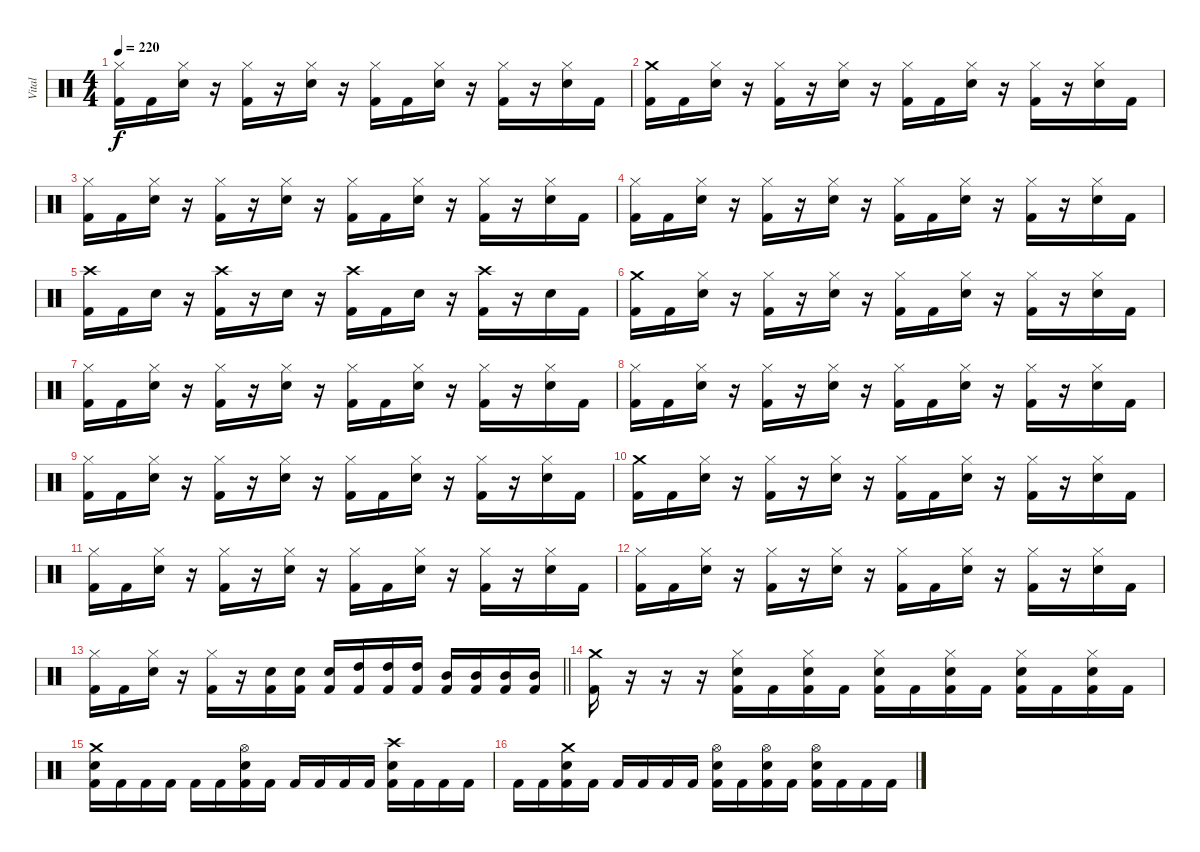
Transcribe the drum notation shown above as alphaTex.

\track ("Vital" "Vital") {instrument percussion}
\staff {score}
\articulation defaults
\ts (4 4)
\tempo 220
\clef neutral
\ks c
("Hi-Hat (closed)" "Kick (hit) 2").16{dy f} "Kick (hit) 2".16 ("Hi-Hat (closed)" "Snare (hit) 2").16 r.16 ("Hi-Hat (closed)" "Kick (hit) 2").16 r.16 ("Hi-Hat (closed)" "Snare (hit) 2").16 r.16 ("Hi-Hat (closed)" "Kick (hit) 2").16 "Kick (hit) 2".16 ("Hi-Hat (closed)" "Snare (hit) 2").16 r.16 ("Hi-Hat (closed)" "Kick (hit) 2").16 r.16 ("Hi-Hat (closed)" "Snare (hit) 2").16 "Kick (hit) 2".16 |
("Crash medium (hit)" "Kick (hit) 2").16 "Kick (hit) 2".16 ("Hi-Hat (closed)" "Snare (hit) 2").16 r.16 ("Hi-Hat (closed)" "Kick (hit) 2").16 r.16 ("Hi-Hat (closed)" "Snare (hit) 2").16 r.16 ("Hi-Hat (closed)" "Kick (hit) 2").16 "Kick (hit) 2".16 ("Hi-Hat (closed)" "Snare (hit) 2").16 r.16 ("Hi-Hat (closed)" "Kick (hit) 2").16 r.16 ("Hi-Hat (closed)" "Snare (hit) 2").16 "Kick (hit) 2".16 |
("Hi-Hat (closed)" "Kick (hit) 2").16 "Kick (hit) 2".16 ("Hi-Hat (closed)" "Snare (hit) 2").16 r.16 ("Hi-Hat (closed)" "Kick (hit) 2").16 r.16 ("Hi-Hat (closed)" "Snare (hit) 2").16 r.16 ("Hi-Hat (closed)" "Kick (hit) 2").16 "Kick (hit) 2".16 ("Hi-Hat (closed)" "Snare (hit) 2").16 r.16 ("Hi-Hat (closed)" "Kick (hit) 2").16 r.16 ("Hi-Hat (closed)" "Snare (hit) 2").16 "Kick (hit) 2".16 |
("Hi-Hat (closed)" "Kick (hit) 2").16 "Kick (hit) 2".16 ("Hi-Hat (closed)" "Snare (hit) 2").16 r.16 ("Hi-Hat (closed)" "Kick (hit) 2").16 r.16 ("Hi-Hat (closed)" "Snare (hit) 2").16 r.16 ("Hi-Hat (closed)" "Kick (hit) 2").16 "Kick (hit) 2".16 ("Hi-Hat (closed)" "Snare (hit) 2").16 r.16 ("Hi-Hat (closed)" "Kick (hit) 2").16 r.16 ("Hi-Hat (closed)" "Snare (hit) 2").16 "Kick (hit) 2".16 |
("Crash high (hit)" "Kick (hit) 2").16 "Kick (hit) 2".16 "Snare (hit) 2".16 r.16 ("Crash high (hit)" "Kick (hit) 2").16 r.16 "Snare (hit) 2".16 r.16 ("Crash high (hit)" "Kick (hit) 2").16 "Kick (hit) 2".16 "Snare (hit) 2".16 r.16 ("Crash high (hit)" "Kick (hit) 2").16 r.16 "Snare (hit) 2".16 "Kick (hit) 2".16 |
("Crash medium (hit)" "Kick (hit) 2").16 "Kick (hit) 2".16 ("Hi-Hat (closed)" "Snare (hit) 2").16 r.16 ("Hi-Hat (closed)" "Kick (hit) 2").16 r.16 ("Hi-Hat (closed)" "Snare (hit) 2").16 r.16 ("Hi-Hat (closed)" "Kick (hit) 2").16 "Kick (hit) 2".16 ("Hi-Hat (closed)" "Snare (hit) 2").16 r.16 ("Hi-Hat (closed)" "Kick (hit) 2").16 r.16 ("Hi-Hat (closed)" "Snare (hit) 2").16 "Kick (hit) 2".16 |
("Hi-Hat (closed)" "Kick (hit) 2").16 "Kick (hit) 2".16 ("Hi-Hat (closed)" "Snare (hit) 2").16 r.16 ("Hi-Hat (closed)" "Kick (hit) 2").16 r.16 ("Hi-Hat (closed)" "Snare (hit) 2").16 r.16 ("Hi-Hat (closed)" "Kick (hit) 2").16 "Kick (hit) 2".16 ("Hi-Hat (closed)" "Snare (hit) 2").16 r.16 ("Hi-Hat (closed)" "Kick (hit) 2").16 r.16 ("Hi-Hat (closed)" "Snare (hit) 2").16 "Kick (hit) 2".16 |
("Hi-Hat (closed)" "Kick (hit) 2").16 "Kick (hit) 2".16 ("Hi-Hat (closed)" "Snare (hit) 2").16 r.16 ("Hi-Hat (closed)" "Kick (hit) 2").16 r.16 ("Hi-Hat (closed)" "Snare (hit) 2").16 r.16 ("Hi-Hat (closed)" "Kick (hit) 2").16 "Kick (hit) 2".16 ("Hi-Hat (closed)" "Snare (hit) 2").16 r.16 ("Hi-Hat (closed)" "Kick (hit) 2").16 r.16 ("Hi-Hat (closed)" "Snare (hit) 2").16 "Kick (hit) 2".16 |
("Hi-Hat (closed)" "Kick (hit) 2").16 "Kick (hit) 2".16 ("Hi-Hat (closed)" "Snare (hit) 2").16 r.16 ("Hi-Hat (closed)" "Kick (hit) 2").16 r.16 ("Hi-Hat (closed)" "Snare (hit) 2").16 r.16 ("Hi-Hat (closed)" "Kick (hit) 2").16 "Kick (hit) 2".16 ("Hi-Hat (closed)" "Snare (hit) 2").16 r.16 ("Hi-Hat (closed)" "Kick (hit) 2").16 r.16 ("Hi-Hat (closed)" "Snare (hit) 2").16 "Kick (hit) 2".16 |
("Crash medium (hit)" "Kick (hit) 2").16 "Kick (hit) 2".16 ("Hi-Hat (closed)" "Snare (hit) 2").16 r.16 ("Hi-Hat (closed)" "Kick (hit) 2").16 r.16 ("Hi-Hat (closed)" "Snare (hit) 2").16 r.16 ("Hi-Hat (closed)" "Kick (hit) 2").16 "Kick (hit) 2".16 ("Hi-Hat (closed)" "Snare (hit) 2").16 r.16 ("Hi-Hat (closed)" "Kick (hit) 2").16 r.16 ("Hi-Hat (closed)" "Snare (hit) 2").16 "Kick (hit) 2".16 |
("Hi-Hat (closed)" "Kick (hit) 2").16 "Kick (hit) 2".16 ("Hi-Hat (closed)" "Snare (hit) 2").16 r.16 ("Hi-Hat (closed)" "Kick (hit) 2").16 r.16 ("Hi-Hat (closed)" "Snare (hit) 2").16 r.16 ("Hi-Hat (closed)" "Kick (hit) 2").16 "Kick (hit) 2".16 ("Hi-Hat (closed)" "Snare (hit) 2").16 r.16 ("Hi-Hat (closed)" "Kick (hit) 2").16 r.16 ("Hi-Hat (closed)" "Snare (hit) 2").16 "Kick (hit) 2".16 |
("Hi-Hat (closed)" "Kick (hit) 2").16 "Kick (hit) 2".16 ("Hi-Hat (closed)" "Snare (hit) 2").16 r.16 ("Hi-Hat (closed)" "Kick (hit) 2").16 r.16 ("Hi-Hat (closed)" "Snare (hit) 2").16 r.16 ("Hi-Hat (closed)" "Kick (hit) 2").16 "Kick (hit) 2".16 ("Hi-Hat (closed)" "Snare (hit) 2").16 r.16 ("Hi-Hat (closed)" "Kick (hit) 2").16 r.16 ("Hi-Hat (closed)" "Snare (hit) 2").16 "Kick (hit) 2".16 |
\barLineRight lightlight
("Hi-Hat (closed)" "Kick (hit) 2").16 "Kick (hit) 2".16 ("Hi-Hat (closed)" "Snare (hit) 2").16 r.16 ("Hi-Hat (closed)" "Kick (hit) 2").16 r.16 ("Snare (hit) 2" "Kick (hit) 2").16 ("Snare (hit) 2" "Kick (hit) 2").16 ("Snare (hit) 2" "Kick (hit) 2").16 ("High Tom (hit)" "Kick (hit) 2").16 ("High Tom (hit)" "Kick (hit) 2").16 ("High Tom (hit)" "Kick (hit) 2").16 ("Mid Tom (hit)" "Kick (hit) 2").16 ("Mid Tom (hit)" "Kick (hit) 2").16 ("Mid Tom (hit)" "Kick (hit) 2").16 ("Mid Tom (hit)" "Kick (hit) 2").16 |
("Crash medium (hit)" "Kick (hit) 2").16 r.16 r.16 r.16 ("Hi-Hat (closed)" "Snare (hit) 2" "Kick (hit) 2").16 "Kick (hit) 2".16 ("Hi-Hat (closed)" "Snare (hit) 2" "Kick (hit) 2").16 "Kick (hit) 2".16 ("Hi-Hat (closed)" "Snare (hit) 2" "Kick (hit) 2").16 "Kick (hit) 2".16 ("Hi-Hat (closed)" "Snare (hit) 2" "Kick (hit) 2").16 "Kick (hit) 2".16 ("Hi-Hat (closed)" "Snare (hit) 2" "Kick (hit) 2").16 "Kick (hit) 2".16 ("Hi-Hat (closed)" "Snare (hit) 2" "Kick (hit) 2").16 "Kick (hit) 2".16 |
("Crash medium (hit)" "Snare (hit) 2" "Kick (hit) 2").16 "Kick (hit) 2".16 "Kick (hit) 2".16 "Kick (hit) 2".16 "Kick (hit) 2".16 "Kick (hit) 2".16 ("Hi-Hat (open)" "Snare (hit) 2" "Kick (hit) 2").16 "Kick (hit) 2".16 "Kick (hit) 2".16 "Kick (hit) 2".16 "Kick (hit) 2".16 "Kick (hit) 2".16 ("Crash high (hit)" "Snare (hit) 2" "Kick (hit) 2").16 "Kick (hit) 2".16 "Kick (hit) 2".16 "Kick (hit) 2".16 |
"Kick (hit) 2".16 "Kick (hit) 2".16 ("Crash medium (hit)" "Snare (hit) 2" "Kick (hit) 2").16 "Kick (hit) 2".16 "Kick (hit) 2".16 "Kick (hit) 2".16 "Kick (hit) 2".16 "Kick (hit) 2".16 ("Hi-Hat (open)" "Snare (hit) 2" "Kick (hit) 2").16 "Kick (hit) 2".16 ("Hi-Hat (open)" "Snare (hit) 2" "Kick (hit) 2").16 "Kick (hit) 2".16 ("Hi-Hat (open)" "Snare (hit) 2" "Kick (hit) 2").16 "Kick (hit) 2".16 "Kick (hit) 2".16 "Kick (hit) 2".16
